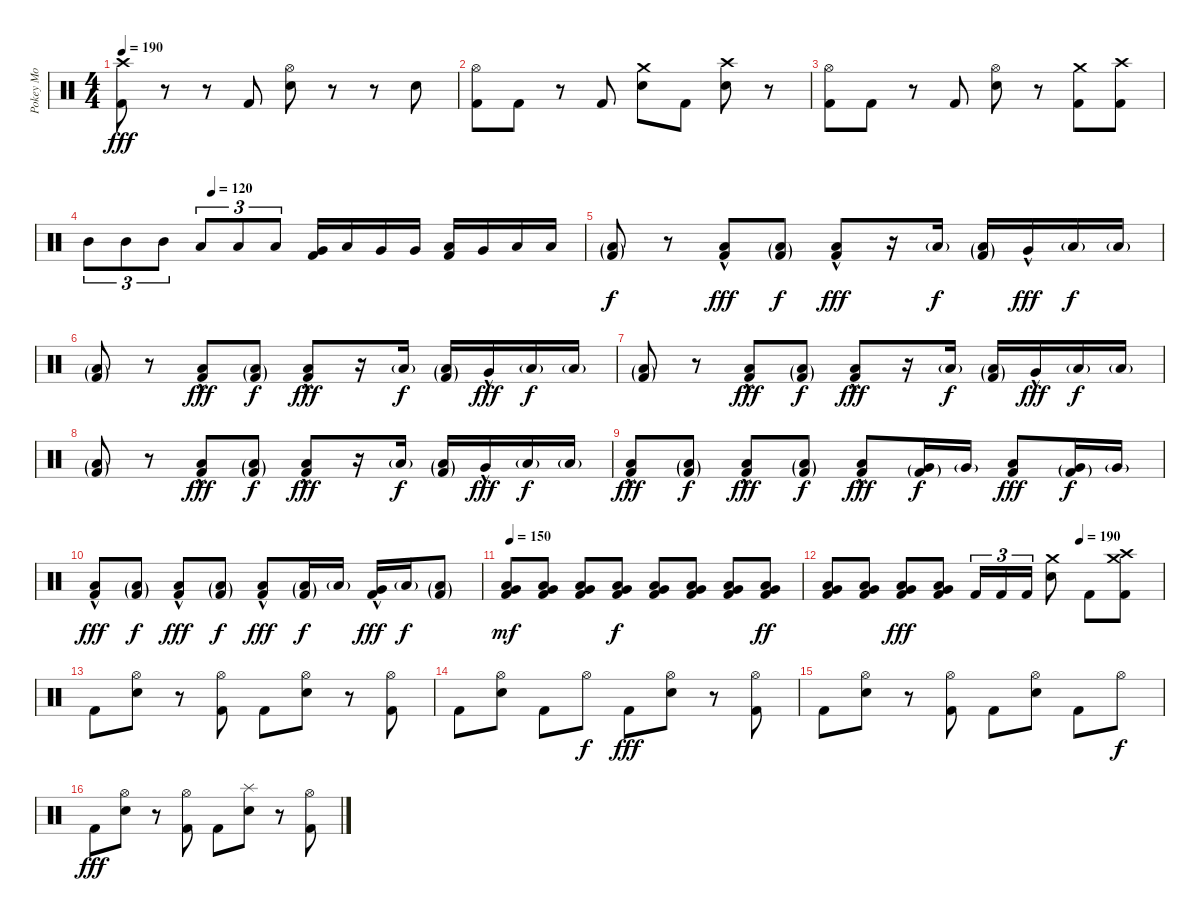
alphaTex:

\track ("Pokey Mo" "Pokey Mo") {instrument percussion}
\staff {score}
\articulation defaults
\ts (4 4)
\tempo 190
\clef neutral
\ks c
("Crash high (hit)" "Kick (hit) 2").8{dy fff} r.8 r.8 "Kick (hit) 2".8 ("Hi-Hat (open)" "Electric Snare (hit)").8 r.8 r.8 "Electric Snare (hit)".8 |
("Hi-Hat (open)" "Kick (hit) 2").8 "Kick (hit) 2".8 r.8 "Kick (hit) 2".8 ("Crash medium (hit)" "Electric Snare (hit)").8 "Kick (hit) 2".8 ("Crash high (hit)" "Electric Snare (hit)").8 r.8 |
("Hi-Hat (open)" "Kick (hit) 2").8 "Kick (hit) 2".8 r.8 "Kick (hit) 2".8 ("Hi-Hat (open)" "Electric Snare (hit)").8 r.8 ("Crash medium (hit)" "Kick (hit) 2").8 ("Crash high (hit)" "Kick (hit) 2").8 |
\tempo (120 0.25)
"Mid Tom (hit)".8{tu (3 2)} "Mid Tom (hit)".8{tu (3 2)} "Mid Tom (hit)".8{tu (3 2)} "Low Tom (hit)".8{tu (3 2)} "Low Tom (hit)".8{tu (3 2)} "Low Tom (hit)".8{tu (3 2)} ("Very Low Tom (hit)" "Kick (hit) 2").16 "Low Tom (hit)".16 "Very Low Tom (hit)".16 "Very Low Tom (hit)".16 ("Low Floor Tom (hit)" "Kick (hit) 2").16 "Very Low Tom (hit)".16 "Low Floor Tom (hit)".16 "Low Floor Tom (hit)".16 |
("Low Floor Tom (hit)"{g} "Kick (hit) 2"{g}).8{dy f} r.8 ("Low Floor Tom (hit)"{hac} "Kick (hit) 2").8{dy fff} ("Low Floor Tom (hit)"{g} "Kick (hit) 2"{g}).8{dy f} ("Low Floor Tom (hit)"{hac} "Kick (hit) 2").8{dy fff} r.16 "Low Floor Tom (hit)"{g}.16{dy f} ("Low Floor Tom (hit)"{g} "Kick (hit) 2"{g}).16 "Very Low Tom (hit)"{hac}.16{dy fff} "Low Floor Tom (hit)"{g}.16{dy f} "Low Floor Tom (hit)"{g}.16 |
("Low Floor Tom (hit)"{g} "Kick (hit) 2"{g}).8 r.8 ("Low Floor Tom (hit)"{hac} "Kick (hit) 2").8{dy fff} ("Low Floor Tom (hit)"{g} "Kick (hit) 2"{g}).8{dy f} ("Low Floor Tom (hit)"{hac} "Kick (hit) 2").8{dy fff} r.16 "Low Floor Tom (hit)"{g}.16{dy f} ("Low Floor Tom (hit)"{g} "Kick (hit) 2"{g}).16 "Very Low Tom (hit)"{hac}.16{dy fff} "Low Floor Tom (hit)"{g}.16{dy f} "Low Floor Tom (hit)"{g}.16 |
("Low Floor Tom (hit)"{g} "Kick (hit) 2"{g}).8 r.8 ("Low Floor Tom (hit)"{hac} "Kick (hit) 2").8{dy fff} ("Low Floor Tom (hit)"{g} "Kick (hit) 2"{g}).8{dy f} ("Low Floor Tom (hit)"{hac} "Kick (hit) 2").8{dy fff} r.16 "Low Floor Tom (hit)"{g}.16{dy f} ("Low Floor Tom (hit)"{g} "Kick (hit) 2"{g}).16 "Very Low Tom (hit)"{hac}.16{dy fff} "Low Floor Tom (hit)"{g}.16{dy f} "Low Floor Tom (hit)"{g}.16 |
("Low Floor Tom (hit)"{g} "Kick (hit) 2"{g}).8 r.8 ("Low Floor Tom (hit)"{hac} "Kick (hit) 2").8{dy fff} ("Low Floor Tom (hit)"{g} "Kick (hit) 2"{g}).8{dy f} ("Low Floor Tom (hit)"{hac} "Kick (hit) 2").8{dy fff} r.16 "Low Floor Tom (hit)"{g}.16{dy f} ("Low Floor Tom (hit)"{g} "Kick (hit) 2"{g}).16 "Very Low Tom (hit)"{hac}.16{dy fff} "Low Floor Tom (hit)"{g}.16{dy f} "Low Floor Tom (hit)"{g}.16 |
("Low Floor Tom (hit)"{hac} "Kick (hit) 2").8{dy fff} ("Low Floor Tom (hit)"{g} "Kick (hit) 2"{g}).8{dy f} ("Low Floor Tom (hit)"{hac} "Kick (hit) 2").8{dy fff} ("Low Floor Tom (hit)"{g} "Kick (hit) 2"{g}).8{dy f} ("Low Floor Tom (hit)"{hac} "Kick (hit) 2").8{dy fff} ("Very Low Tom (hit)"{g} "Kick (hit) 2"{g}).16{dy f} "Very Low Tom (hit)"{g}.16 ("Low Floor Tom (hit)" "Kick (hit) 2").8{dy fff} ("Very Low Tom (hit)"{g} "Kick (hit) 2"{g}).16{dy f} "Very Low Tom (hit)"{g}.16 |
("Low Floor Tom (hit)"{hac} "Kick (hit) 2").8{dy fff} ("Low Floor Tom (hit)"{g} "Kick (hit) 2"{g}).8{dy f} ("Low Floor Tom (hit)"{hac} "Kick (hit) 2").8{dy fff} ("Low Floor Tom (hit)"{g} "Kick (hit) 2"{g}).8{dy f} ("Low Floor Tom (hit)"{hac} "Kick (hit) 2").8{dy fff} ("Low Floor Tom (hit)"{g} "Kick (hit) 2"{g}).16{dy f} "Low Floor Tom (hit)"{g}.16 ("Very Low Tom (hit)"{hac} "Kick (hit) 2").16{dy fff} "Low Floor Tom (hit)"{g}.16{dy f} ("Low Floor Tom (hit)"{g} "Kick (hit) 2"{g}).8 |
\tempo 150
("Very Low Tom (hit)" "Low Floor Tom (hit)" "Kick (hit) 2").8{dy mf} ("Very Low Tom (hit)" "Low Floor Tom (hit)" "Kick (hit) 2").8 ("Very Low Tom (hit)" "Low Floor Tom (hit)" "Kick (hit) 2").8 ("Very Low Tom (hit)" "Low Floor Tom (hit)" "Kick (hit) 2").8{dy f} ("Very Low Tom (hit)" "Low Floor Tom (hit)" "Kick (hit) 2").8 ("Very Low Tom (hit)" "Low Floor Tom (hit)" "Kick (hit) 2").8 ("Very Low Tom (hit)" "Low Floor Tom (hit)" "Kick (hit) 2").8 ("Very Low Tom (hit)" "Low Floor Tom (hit)" "Kick (hit) 2").8{dy ff} |
\tempo (190 0.75)
("Very Low Tom (hit)" "Low Floor Tom (hit)" "Kick (hit) 2").8 ("Very Low Tom (hit)" "Low Floor Tom (hit)" "Kick (hit) 2").8 ("Very Low Tom (hit)" "Low Floor Tom (hit)" "Kick (hit) 2").8{dy fff} ("Very Low Tom (hit)" "Low Floor Tom (hit)" "Kick (hit) 2").8 "Kick (hit) 2".16{tu (3 2)} "Kick (hit) 2".16{tu (3 2)} "Kick (hit) 2".16{tu (3 2)} ("Crash medium (hit)" "Electric Snare (hit)").8 "Kick (hit) 2".8 ("Crash medium (hit)" "Crash high (hit)" "Kick (hit) 2").8 |
"Kick (hit) 2".8 ("Hi-Hat (open)" "Electric Snare (hit)").8 r.8 ("Hi-Hat (open)" "Kick (hit) 2").8 "Kick (hit) 2".8 ("Hi-Hat (open)" "Electric Snare (hit)").8 r.8 ("Hi-Hat (open)" "Kick (hit) 2").8 |
"Kick (hit) 2".8 ("Hi-Hat (open)" "Electric Snare (hit)").8 "Kick (hit) 2".8 "Hi-Hat (open)".8{dy f} "Kick (hit) 2".8{dy fff} ("Hi-Hat (open)" "Electric Snare (hit)").8 r.8 ("Hi-Hat (open)" "Kick (hit) 2").8 |
"Kick (hit) 2".8 ("Hi-Hat (open)" "Electric Snare (hit)").8 r.8 ("Hi-Hat (open)" "Kick (hit) 2").8 "Kick (hit) 2".8 ("Hi-Hat (open)" "Electric Snare (hit)").8 "Kick (hit) 2".8 "Hi-Hat (open)".8{dy f} |
"Kick (hit) 2".8{dy fff} ("Hi-Hat (open)" "Electric Snare (hit)").8 r.8 ("Hi-Hat (open)" "Kick (hit) 2").8 "Kick (hit) 2".8 ("Splash (hit)" "Electric Snare (hit)").8 r.8 ("Hi-Hat (open)" "Kick (hit) 2").8
